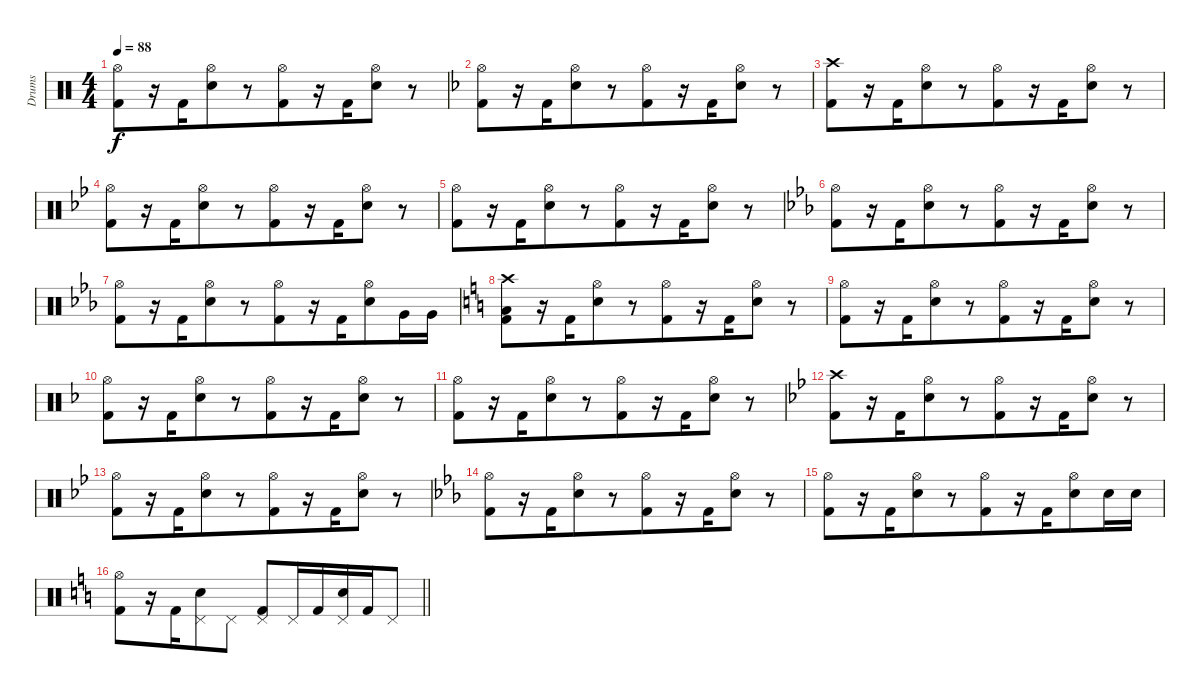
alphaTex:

\track ("Drums" "Drums") {instrument percussion}
\staff {score}
\articulation defaults
\ts (4 4)
\tempo 88
\clef neutral
\ks aminor
("Hi-Hat (open)" "Kick (hit) 2").8{dy f} r.16 "Kick (hit) 2".16{beam merge} ("Hi-Hat (open)" "Electric Snare (hit)").8{beam merge} r.8 ("Hi-Hat (open)" "Kick (hit) 2").8{beam merge} r.16 "Kick (hit) 2".16{beam merge} ("Hi-Hat (open)" "Electric Snare (hit)").8{beam merge} r.8 |
\ks dminor
("Hi-Hat (open)" "Kick (hit) 2").8 r.16 "Kick (hit) 2".16{beam merge} ("Hi-Hat (open)" "Electric Snare (hit)").8{beam merge} r.8 ("Hi-Hat (open)" "Kick (hit) 2").8{beam merge} r.16 "Kick (hit) 2".16{beam merge} ("Hi-Hat (open)" "Electric Snare (hit)").8{beam merge} r.8 |
("Crash high (hit)" "Kick (hit) 2").8 r.16 "Kick (hit) 2".16{beam merge} ("Hi-Hat (open)" "Electric Snare (hit)").8{beam merge} r.8 ("Hi-Hat (open)" "Kick (hit) 2").8{beam merge} r.16 "Kick (hit) 2".16{beam merge} ("Hi-Hat (open)" "Electric Snare (hit)").8{beam merge} r.8 |
\ks gminor
("Hi-Hat (open)" "Kick (hit) 2").8 r.16 "Kick (hit) 2".16{beam merge} ("Hi-Hat (open)" "Electric Snare (hit)").8{beam merge} r.8 ("Hi-Hat (open)" "Kick (hit) 2").8{beam merge} r.16 "Kick (hit) 2".16{beam merge} ("Hi-Hat (open)" "Electric Snare (hit)").8{beam merge} r.8 |
("Hi-Hat (open)" "Kick (hit) 2").8 r.16 "Kick (hit) 2".16{beam merge} ("Hi-Hat (open)" "Electric Snare (hit)").8{beam merge} r.8 ("Hi-Hat (open)" "Kick (hit) 2").8{beam merge} r.16 "Kick (hit) 2".16{beam merge} ("Hi-Hat (open)" "Electric Snare (hit)").8{beam merge} r.8 |
\ks cminor
("Hi-Hat (open)" "Kick (hit) 2").8 r.16 "Kick (hit) 2".16{beam merge} ("Hi-Hat (open)" "Electric Snare (hit)").8{beam merge} r.8 ("Hi-Hat (open)" "Kick (hit) 2").8{beam merge} r.16 "Kick (hit) 2".16{beam merge} ("Hi-Hat (open)" "Electric Snare (hit)").8{beam merge} r.8 |
("Hi-Hat (open)" "Kick (hit) 2").8 r.16 "Kick (hit) 2".16{beam merge} ("Hi-Hat (open)" "Electric Snare (hit)").8{beam merge} r.8 ("Hi-Hat (open)" "Kick (hit) 2").8{beam merge} r.16 "Kick (hit) 2".16{beam merge} ("Hi-Hat (open)" "Electric Snare (hit)").8{beam merge} "Very Low Tom (hit)".16 "Very Low Tom (hit)".16 |
\ks aminor
("Crash high (hit)" "Low Floor Tom (hit)" "Kick (hit) 2").8 r.16 "Kick (hit) 2".16{beam merge} ("Hi-Hat (open)" "Electric Snare (hit)").8{beam merge} r.8 ("Hi-Hat (open)" "Kick (hit) 2").8{beam merge} r.16 "Kick (hit) 2".16{beam merge} ("Hi-Hat (open)" "Electric Snare (hit)").8{beam merge} r.8 |
("Hi-Hat (open)" "Kick (hit) 2").8 r.16 "Kick (hit) 2".16{beam merge} ("Hi-Hat (open)" "Electric Snare (hit)").8{beam merge} r.8 ("Hi-Hat (open)" "Kick (hit) 2").8{beam merge} r.16 "Kick (hit) 2".16{beam merge} ("Hi-Hat (open)" "Electric Snare (hit)").8{beam merge} r.8 |
\ks dminor
("Hi-Hat (open)" "Kick (hit) 2").8 r.16 "Kick (hit) 2".16{beam merge} ("Hi-Hat (open)" "Electric Snare (hit)").8{beam merge} r.8 ("Hi-Hat (open)" "Kick (hit) 2").8{beam merge} r.16 "Kick (hit) 2".16{beam merge} ("Hi-Hat (open)" "Electric Snare (hit)").8{beam merge} r.8 |
("Hi-Hat (open)" "Kick (hit) 2").8 r.16 "Kick (hit) 2".16{beam merge} ("Hi-Hat (open)" "Electric Snare (hit)").8{beam merge} r.8 ("Hi-Hat (open)" "Kick (hit) 2").8{beam merge} r.16 "Kick (hit) 2".16{beam merge} ("Hi-Hat (open)" "Electric Snare (hit)").8{beam merge} r.8 |
\ks gminor
("Crash high (hit)" "Kick (hit) 2").8 r.16 "Kick (hit) 2".16{beam merge} ("Hi-Hat (open)" "Electric Snare (hit)").8{beam merge} r.8 ("Hi-Hat (open)" "Kick (hit) 2").8{beam merge} r.16 "Kick (hit) 2".16{beam merge} ("Hi-Hat (open)" "Electric Snare (hit)").8{beam merge} r.8 |
("Hi-Hat (open)" "Kick (hit) 2").8 r.16 "Kick (hit) 2".16{beam merge} ("Hi-Hat (open)" "Electric Snare (hit)").8{beam merge} r.8 ("Hi-Hat (open)" "Kick (hit) 2").8{beam merge} r.16 "Kick (hit) 2".16{beam merge} ("Hi-Hat (open)" "Electric Snare (hit)").8{beam merge} r.8 |
\ks cminor
("Hi-Hat (open)" "Kick (hit) 2").8 r.16 "Kick (hit) 2".16{beam merge} ("Hi-Hat (open)" "Electric Snare (hit)").8{beam merge} r.8 ("Hi-Hat (open)" "Kick (hit) 2").8{beam merge} r.16 "Kick (hit) 2".16{beam merge} ("Hi-Hat (open)" "Electric Snare (hit)").8{beam merge} r.8 |
("Hi-Hat (open)" "Kick (hit) 2").8 r.16 "Kick (hit) 2".16{beam merge} ("Hi-Hat (open)" "Electric Snare (hit)").8{beam merge} r.8 ("Hi-Hat (open)" "Kick (hit) 2").8{beam merge} r.16 "Kick (hit) 2".16{beam merge} ("Hi-Hat (open)" "Electric Snare (hit)").8{beam merge} "Electric Snare (hit)".16 "Electric Snare (hit)".16 |
\barLineRight lightlight
\ks aminor
("Hi-Hat (open)" "Kick (hit) 2").8 r.16 "Kick (hit) 2".16{beam merge} ("Pedal Hi-Hat (hit)" "Electric Snare (hit)").8{beam merge} "Pedal Hi-Hat (hit)".8 ("Pedal Hi-Hat (hit)" "Kick (hit) 2").8{beam merge} "Pedal Hi-Hat (hit)".16 "Kick (hit) 2".16{beam merge} ("Pedal Hi-Hat (hit)" "Electric Snare (hit)").16{beam merge} "Kick (hit) 2".16{beam merge} "Pedal Hi-Hat (hit)".8
